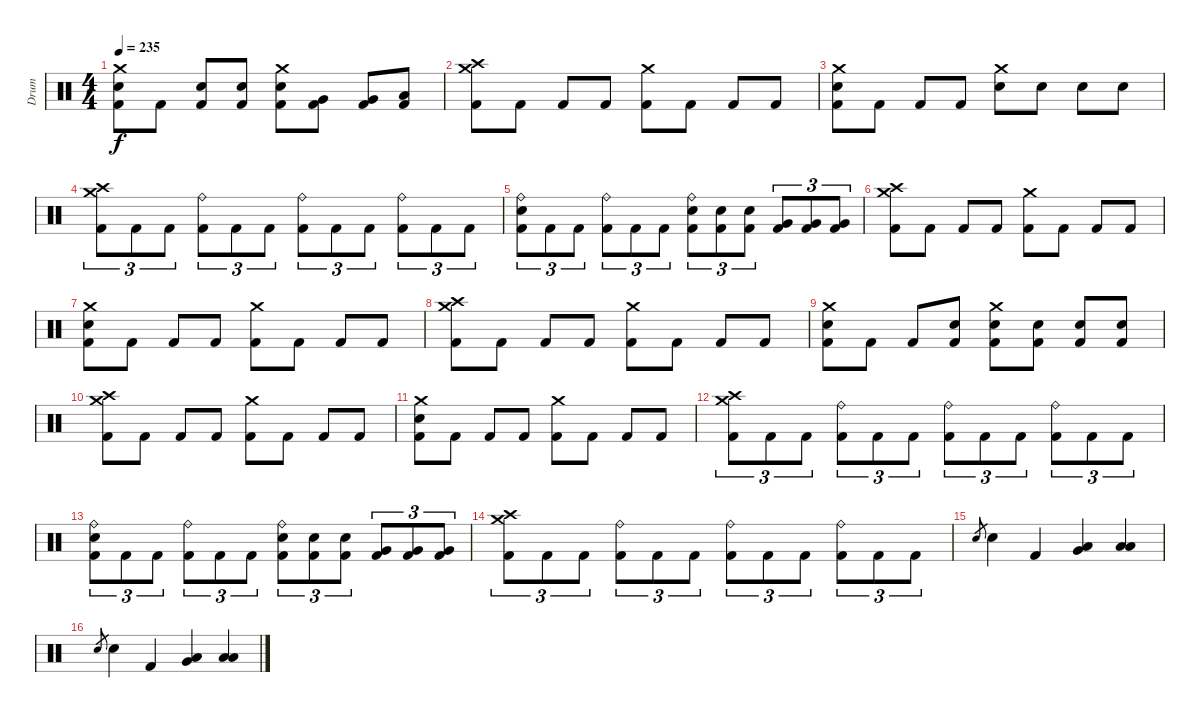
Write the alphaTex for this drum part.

\track ("Drum" "Drum") {instrument percussion}
\staff {score}
\articulation defaults
\ts (4 4)
\tempo 235
\clef neutral
\ks c
("Crash medium (hit)" "Electric Snare (hit)" "Kick (hit) 2").8{dy f} "Kick (hit) 2".8 ("Electric Snare (hit)" "Kick (hit) 2").8 ("Electric Snare (hit)" "Kick (hit) 2").8 ("Crash medium (hit)" "Electric Snare (hit)" "Kick (hit) 2").8 ("Very Low Tom (hit)" "Kick (hit) 2").8 ("Very Low Tom (hit)" "Kick (hit) 2").8 ("Low Tom (hit)" "Kick (hit) 2").8 |
("Crash medium (hit)" "Crash high (hit)" "Kick (hit) 2").8 "Kick (hit) 2".8 "Kick (hit) 2".8 "Kick (hit) 2".8 ("Crash medium (hit)" "Kick (hit) 2").8 "Kick (hit) 2".8 "Kick (hit) 2".8 "Kick (hit) 2".8 |
("Crash medium (hit)" "Electric Snare (hit)" "Kick (hit) 2").8 "Kick (hit) 2".8 "Kick (hit) 2".8 "Kick (hit) 2".8 ("Crash medium (hit)" "Electric Snare (hit)").8 "Electric Snare (hit)".8 "Electric Snare (hit)".8 "Electric Snare (hit)".8 |
("Crash medium (hit)" "Crash high (hit)" "Kick (hit) 2").8{tu (3 2)} "Kick (hit) 2".8{tu (3 2)} "Kick (hit) 2".8{tu (3 2)} ("Ride (bell)" "Kick (hit) 2").8{tu (3 2)} "Kick (hit) 2".8{tu (3 2)} "Kick (hit) 2".8{tu (3 2)} ("Ride (bell)" "Kick (hit) 2").8{tu (3 2)} "Kick (hit) 2".8{tu (3 2)} "Kick (hit) 2".8{tu (3 2)} ("Ride (bell)" "Kick (hit) 2").8{tu (3 2)} "Kick (hit) 2".8{tu (3 2)} "Kick (hit) 2".8{tu (3 2)} |
("Ride (bell)" "Electric Snare (hit)" "Kick (hit) 2").8{tu (3 2)} "Kick (hit) 2".8{tu (3 2)} "Kick (hit) 2".8{tu (3 2)} ("Ride (bell)" "Kick (hit) 2").8{tu (3 2)} "Kick (hit) 2".8{tu (3 2)} "Kick (hit) 2".8{tu (3 2)} ("Ride (bell)" "Electric Snare (hit)" "Kick (hit) 2").8{tu (3 2)} ("Electric Snare (hit)" "Kick (hit) 2").8{tu (3 2)} ("Electric Snare (hit)" "Kick (hit) 2").8{tu (3 2)} ("Very Low Tom (hit)" "Kick (hit) 2").8{tu (3 2)} ("Very Low Tom (hit)" "Kick (hit) 2").8{tu (3 2)} ("Very Low Tom (hit)" "Kick (hit) 2").8{tu (3 2)} |
("Crash medium (hit)" "Crash high (hit)" "Kick (hit) 2").8 "Kick (hit) 2".8 "Kick (hit) 2".8 "Kick (hit) 2".8 ("Crash medium (hit)" "Kick (hit) 2").8 "Kick (hit) 2".8 "Kick (hit) 2".8 "Kick (hit) 2".8 |
("Crash medium (hit)" "Electric Snare (hit)" "Kick (hit) 2").8 "Kick (hit) 2".8 "Kick (hit) 2".8 "Kick (hit) 2".8 ("Crash medium (hit)" "Kick (hit) 2").8 "Kick (hit) 2".8 "Kick (hit) 2".8 "Kick (hit) 2".8 |
("Crash medium (hit)" "Crash high (hit)" "Kick (hit) 2").8 "Kick (hit) 2".8 "Kick (hit) 2".8 "Kick (hit) 2".8 ("Crash medium (hit)" "Kick (hit) 2").8 "Kick (hit) 2".8 "Kick (hit) 2".8 "Kick (hit) 2".8 |
("Crash medium (hit)" "Electric Snare (hit)" "Kick (hit) 2").8 "Kick (hit) 2".8 "Kick (hit) 2".8 ("Electric Snare (hit)" "Kick (hit) 2").8 ("Crash medium (hit)" "Electric Snare (hit)" "Kick (hit) 2").8 ("Electric Snare (hit)" "Kick (hit) 2").8 ("Electric Snare (hit)" "Kick (hit) 2").8 ("Electric Snare (hit)" "Kick (hit) 2").8 |
("Crash medium (hit)" "Crash high (hit)" "Kick (hit) 2").8 "Kick (hit) 2".8 "Kick (hit) 2".8 "Kick (hit) 2".8 ("Crash medium (hit)" "Kick (hit) 2").8 "Kick (hit) 2".8 "Kick (hit) 2".8 "Kick (hit) 2".8 |
("Crash medium (hit)" "Electric Snare (hit)" "Kick (hit) 2").8 "Kick (hit) 2".8 "Kick (hit) 2".8 "Kick (hit) 2".8 ("Crash medium (hit)" "Kick (hit) 2").8 "Kick (hit) 2".8 "Kick (hit) 2".8 "Kick (hit) 2".8 |
("Crash medium (hit)" "Crash high (hit)" "Kick (hit) 2").8{tu (3 2)} "Kick (hit) 2".8{tu (3 2)} "Kick (hit) 2".8{tu (3 2)} ("Ride (bell)" "Kick (hit) 2").8{tu (3 2)} "Kick (hit) 2".8{tu (3 2)} "Kick (hit) 2".8{tu (3 2)} ("Ride (bell)" "Kick (hit) 2").8{tu (3 2)} "Kick (hit) 2".8{tu (3 2)} "Kick (hit) 2".8{tu (3 2)} ("Ride (bell)" "Kick (hit) 2").8{tu (3 2)} "Kick (hit) 2".8{tu (3 2)} "Kick (hit) 2".8{tu (3 2)} |
("Ride (bell)" "Electric Snare (hit)" "Kick (hit) 2").8{tu (3 2)} "Kick (hit) 2".8{tu (3 2)} "Kick (hit) 2".8{tu (3 2)} ("Ride (bell)" "Kick (hit) 2").8{tu (3 2)} "Kick (hit) 2".8{tu (3 2)} "Kick (hit) 2".8{tu (3 2)} ("Ride (bell)" "Electric Snare (hit)" "Kick (hit) 2").8{tu (3 2)} ("Electric Snare (hit)" "Kick (hit) 2").8{tu (3 2)} ("Electric Snare (hit)" "Kick (hit) 2").8{tu (3 2)} ("Very Low Tom (hit)" "Kick (hit) 2").8{tu (3 2)} ("Very Low Tom (hit)" "Kick (hit) 2").8{tu (3 2)} ("Very Low Tom (hit)" "Kick (hit) 2").8{tu (3 2)} |
("Crash medium (hit)" "Crash high (hit)" "Kick (hit) 2").8{tu (3 2)} "Kick (hit) 2".8{tu (3 2)} "Kick (hit) 2".8{tu (3 2)} ("Ride (bell)" "Kick (hit) 2").8{tu (3 2)} "Kick (hit) 2".8{tu (3 2)} "Kick (hit) 2".8{tu (3 2)} ("Ride (bell)" "Kick (hit) 2").8{tu (3 2)} "Kick (hit) 2".8{tu (3 2)} "Kick (hit) 2".8{tu (3 2)} ("Ride (bell)" "Kick (hit) 2").8{tu (3 2)} "Kick (hit) 2".8{tu (3 2)} "Kick (hit) 2".8{tu (3 2)} |
"Electric Snare (hit)".8{gr} "Electric Snare (hit)".4 "Kick (hit) 2".4 ("Low Tom (hit)" "Very Low Tom (hit)").4 ("Low Floor Tom (hit)" "Low Tom (hit)").4 |
"Electric Snare (hit)".8{gr} "Electric Snare (hit)".4 "Kick (hit) 2".4 ("Low Tom (hit)" "Very Low Tom (hit)").4 ("Low Floor Tom (hit)" "Low Tom (hit)").4
